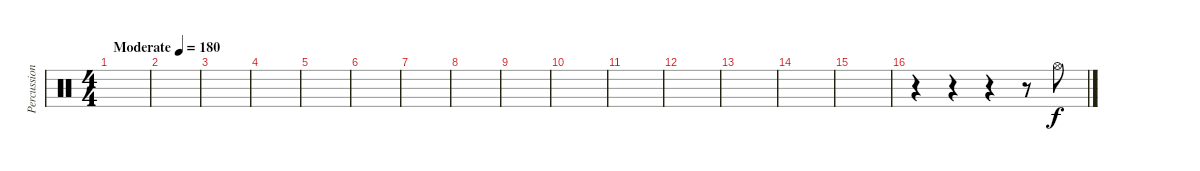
\track ("Percussion" "Percussion") {instrument percussion}
\staff {score}
\articulation defaults
\ts (4 4)
\tempo (180 "Moderate")
\clef neutral
\ks c
|
|
|
|
|
|
|
|
|
|
|
|
|
|
|
r.4 r.4 r.4 r.8 "Hi-Hat (open)".8
